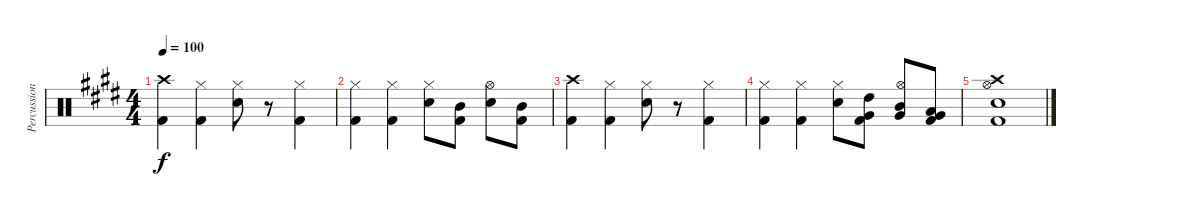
\track ("Percussion" "Percussion") {instrument percussion}
\staff {score}
\articulation defaults
\ts (4 4)
\tempo 100
\clef neutral
\ks e
("Crash high (hit)" "Kick (hit) 2").4{dy f} ("Hi-Hat (closed)" "Kick (hit) 2").4 ("Hi-Hat (closed)" "Electric Snare (hit)").8 r.8 ("Hi-Hat (closed)" "Kick (hit) 2").4 |
("Hi-Hat (closed)" "Kick (hit) 2").4 ("Hi-Hat (closed)" "Kick (hit) 2").4 ("Hi-Hat (closed)" "Electric Snare (hit)").8 ("Mid Tom (hit)" "Kick (hit) 2").8 ("Hi-Hat (open)" "Electric Snare (hit)").8 ("Mid Tom (hit)" "Kick (hit) 2").8 |
("Crash high (hit)" "Kick (hit) 2").4 ("Hi-Hat (closed)" "Kick (hit) 2").4 ("Hi-Hat (closed)" "Electric Snare (hit)").8 r.8 ("Hi-Hat (closed)" "Kick (hit) 2").4 |
("Hi-Hat (closed)" "Kick (hit) 2").4 ("Hi-Hat (closed)" "Kick (hit) 2").4 ("Hi-Hat (closed)" "Electric Snare (hit)").8 ("High Tom (hit)" "Very Low Tom (hit)" "Kick (hit) 2").8 ("Hi-Hat (open)" "Mid Tom (hit)" "Very Low Tom (hit)").8 ("Low Tom (hit)" "Very Low Tom (hit)" "Kick (hit) 2").8 |
("Crash high (hit)" "Hi-Hat (open)" "Electric Snare (hit)" "Kick (hit) 2").1
